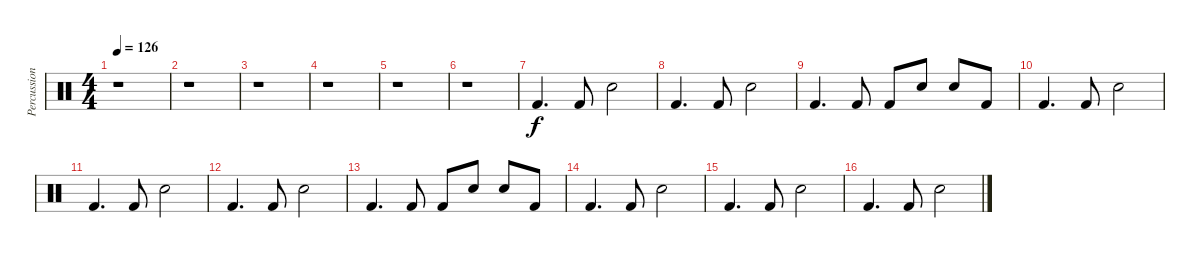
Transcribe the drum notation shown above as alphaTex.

\track ("Percussioni" "Percussion") {instrument percussion}
\staff {score}
\articulation defaults
\ts (4 4)
\tempo 126
\clef neutral
\ks c
r.1{dy f} |
r.1 |
r.1 |
r.1 |
r.1 |
r.1 |
"Kick (hit) 2".4{d} "Kick (hit) 2".8 "Snare (hit) 2".2 |
"Kick (hit) 2".4{d} "Kick (hit) 2".8 "Snare (hit) 2".2 |
"Kick (hit) 2".4{d} "Kick (hit) 2".8 "Kick (hit) 2".8 "Snare (hit) 2".8 "Snare (hit) 2".8 "Kick (hit) 2".8 |
"Kick (hit) 2".4{d} "Kick (hit) 2".8 "Snare (hit) 2".2 |
"Kick (hit) 2".4{d} "Kick (hit) 2".8 "Snare (hit) 2".2 |
"Kick (hit) 2".4{d} "Kick (hit) 2".8 "Snare (hit) 2".2 |
"Kick (hit) 2".4{d} "Kick (hit) 2".8 "Kick (hit) 2".8 "Snare (hit) 2".8 "Snare (hit) 2".8 "Kick (hit) 2".8 |
"Kick (hit) 2".4{d} "Kick (hit) 2".8 "Snare (hit) 2".2 |
"Kick (hit) 2".4{d} "Kick (hit) 2".8 "Snare (hit) 2".2 |
"Kick (hit) 2".4{d} "Kick (hit) 2".8 "Snare (hit) 2".2
